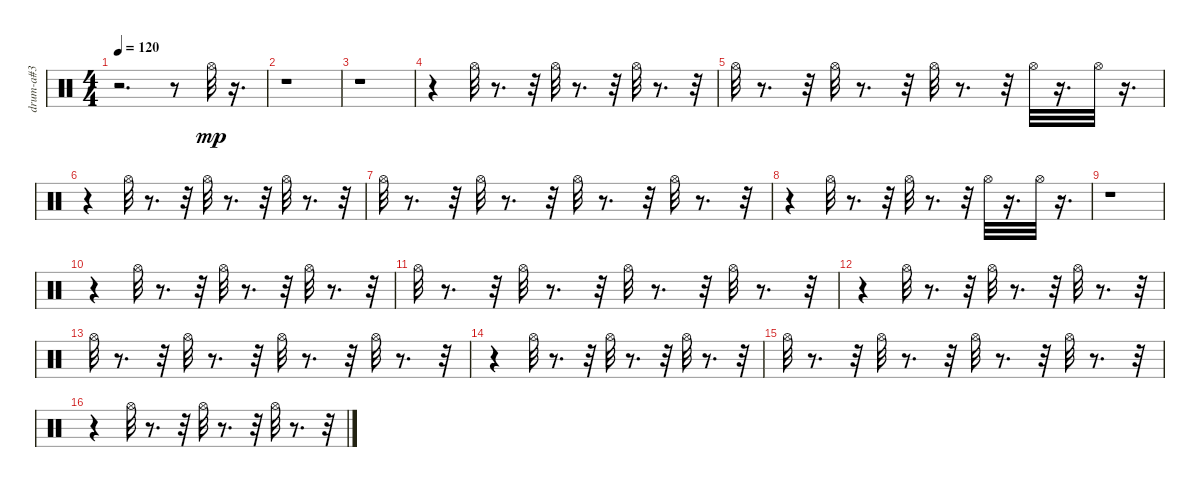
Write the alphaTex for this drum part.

\track ("drum-a#3" "drum-a#3") {instrument percussion}
\staff {score}
\articulation defaults
\ts (4 4)
\tempo 120
\clef neutral
\ks c
r.2{d dy mp} r.8 "Hi-Hat (open)".32 r.16{d} |
r.1 |
r.1 |
r.4 "Hi-Hat (open)".32 r.8{d} r.32 "Hi-Hat (open)".32 r.8{d} r.32 "Hi-Hat (open)".32 r.8{d} r.32 |
"Hi-Hat (open)".32 r.8{d} r.32 "Hi-Hat (open)".32 r.8{d} r.32 "Hi-Hat (open)".32 r.8{d} r.32 "Hi-Hat (open)".32 r.16{d} "Hi-Hat (open)".32 r.16{d} |
r.4 "Hi-Hat (open)".32 r.8{d} r.32 "Hi-Hat (open)".32 r.8{d} r.32 "Hi-Hat (open)".32 r.8{d} r.32 |
"Hi-Hat (open)".32 r.8{d} r.32 "Hi-Hat (open)".32 r.8{d} r.32 "Hi-Hat (open)".32 r.8{d} r.32 "Hi-Hat (open)".32 r.8{d} r.32 |
r.4 "Hi-Hat (open)".32 r.8{d} r.32 "Hi-Hat (open)".32 r.8{d} r.32 "Hi-Hat (open)".32 r.16{d} "Hi-Hat (open)".32 r.16{d} |
r.1 |
r.4 "Hi-Hat (open)".32 r.8{d} r.32 "Hi-Hat (open)".32 r.8{d} r.32 "Hi-Hat (open)".32 r.8{d} r.32 |
"Hi-Hat (open)".32 r.8{d} r.32 "Hi-Hat (open)".32 r.8{d} r.32 "Hi-Hat (open)".32 r.8{d} r.32 "Hi-Hat (open)".32 r.8{d} r.32 |
r.4 "Hi-Hat (open)".32 r.8{d} r.32 "Hi-Hat (open)".32 r.8{d} r.32 "Hi-Hat (open)".32 r.8{d} r.32 |
"Hi-Hat (open)".32 r.8{d} r.32 "Hi-Hat (open)".32 r.8{d} r.32 "Hi-Hat (open)".32 r.8{d} r.32 "Hi-Hat (open)".32 r.8{d} r.32 |
r.4 "Hi-Hat (open)".32 r.8{d} r.32 "Hi-Hat (open)".32 r.8{d} r.32 "Hi-Hat (open)".32 r.8{d} r.32 |
"Hi-Hat (open)".32 r.8{d} r.32 "Hi-Hat (open)".32 r.8{d} r.32 "Hi-Hat (open)".32 r.8{d} r.32 "Hi-Hat (open)".32 r.8{d} r.32 |
r.4 "Hi-Hat (open)".32 r.8{d} r.32 "Hi-Hat (open)".32 r.8{d} r.32 "Hi-Hat (open)".32 r.8{d} r.32
